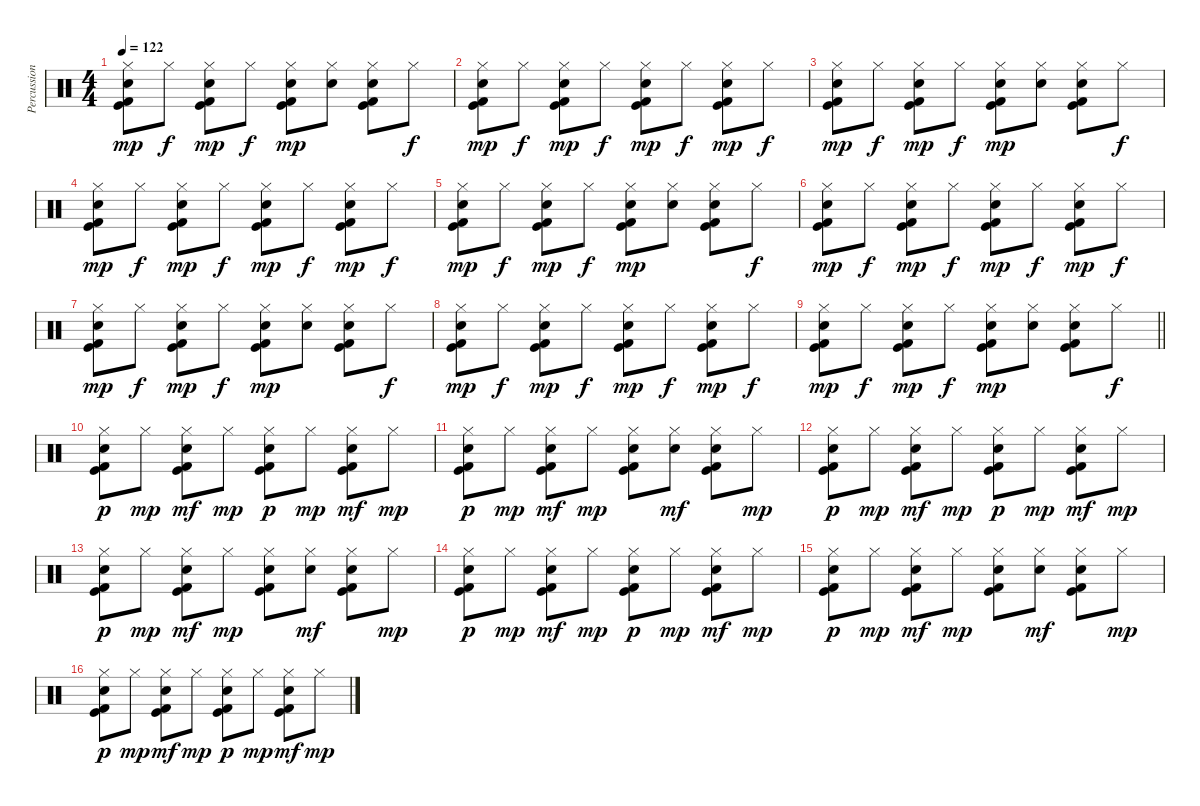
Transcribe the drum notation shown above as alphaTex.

\track ("Percussion" "Percussion") {instrument percussion}
\staff {score}
\articulation defaults
\ts (4 4)
\tempo 122
\clef neutral
\ks c
("Hi-Hat (closed)" "Hand Clap (hit)" "Kick (hit)" "Kick (hit) 2").8{dy mp} "Hi-Hat (closed)".8{dy f} ("Hi-Hat (closed)" "Hand Clap (hit)" "Kick (hit)" "Kick (hit) 2").8{dy mp} "Hi-Hat (closed)".8{dy f} ("Hi-Hat (closed)" "Hand Clap (hit)" "Kick (hit)" "Kick (hit) 2").8{dy mp} ("Hi-Hat (closed)" "Hand Clap (hit)").8 ("Hi-Hat (closed)" "Hand Clap (hit)" "Kick (hit)" "Kick (hit) 2").8 "Hi-Hat (closed)".8{dy f} |
("Hi-Hat (closed)" "Hand Clap (hit)" "Kick (hit)" "Kick (hit) 2").8{dy mp volume 13} "Hi-Hat (closed)".8{dy f} ("Hi-Hat (closed)" "Hand Clap (hit)" "Kick (hit)" "Kick (hit) 2").8{dy mp} "Hi-Hat (closed)".8{dy f} ("Hi-Hat (closed)" "Hand Clap (hit)" "Kick (hit)" "Kick (hit) 2").8{dy mp} "Hi-Hat (closed)".8{dy f} ("Hi-Hat (closed)" "Hand Clap (hit)" "Kick (hit)" "Kick (hit) 2").8{dy mp} "Hi-Hat (closed)".8{dy f} |
("Hi-Hat (closed)" "Hand Clap (hit)" "Kick (hit)" "Kick (hit) 2").8{dy mp} "Hi-Hat (closed)".8{dy f} ("Hi-Hat (closed)" "Hand Clap (hit)" "Kick (hit)" "Kick (hit) 2").8{dy mp} "Hi-Hat (closed)".8{dy f} ("Hi-Hat (closed)" "Hand Clap (hit)" "Kick (hit)" "Kick (hit) 2").8{dy mp} ("Hi-Hat (closed)" "Hand Clap (hit)").8 ("Hi-Hat (closed)" "Hand Clap (hit)" "Kick (hit)" "Kick (hit) 2").8 "Hi-Hat (closed)".8{dy f} |
("Hi-Hat (closed)" "Hand Clap (hit)" "Kick (hit)" "Kick (hit) 2").8{dy mp} "Hi-Hat (closed)".8{dy f} ("Hi-Hat (closed)" "Hand Clap (hit)" "Kick (hit)" "Kick (hit) 2").8{dy mp} "Hi-Hat (closed)".8{dy f} ("Hi-Hat (closed)" "Hand Clap (hit)" "Kick (hit)" "Kick (hit) 2").8{dy mp} "Hi-Hat (closed)".8{dy f} ("Hi-Hat (closed)" "Hand Clap (hit)" "Kick (hit)" "Kick (hit) 2").8{dy mp} "Hi-Hat (closed)".8{dy f} |
("Hi-Hat (closed)" "Hand Clap (hit)" "Kick (hit)" "Kick (hit) 2").8{dy mp} "Hi-Hat (closed)".8{dy f} ("Hi-Hat (closed)" "Hand Clap (hit)" "Kick (hit)" "Kick (hit) 2").8{dy mp} "Hi-Hat (closed)".8{dy f} ("Hi-Hat (closed)" "Hand Clap (hit)" "Kick (hit)" "Kick (hit) 2").8{dy mp} ("Hi-Hat (closed)" "Hand Clap (hit)").8 ("Hi-Hat (closed)" "Hand Clap (hit)" "Kick (hit)" "Kick (hit) 2").8 "Hi-Hat (closed)".8{dy f} |
("Hi-Hat (closed)" "Hand Clap (hit)" "Kick (hit)" "Kick (hit) 2").8{dy mp} "Hi-Hat (closed)".8{dy f} ("Hi-Hat (closed)" "Hand Clap (hit)" "Kick (hit)" "Kick (hit) 2").8{dy mp} "Hi-Hat (closed)".8{dy f} ("Hi-Hat (closed)" "Hand Clap (hit)" "Kick (hit)" "Kick (hit) 2").8{dy mp} "Hi-Hat (closed)".8{dy f} ("Hi-Hat (closed)" "Hand Clap (hit)" "Kick (hit)" "Kick (hit) 2").8{dy mp} "Hi-Hat (closed)".8{dy f} |
("Hi-Hat (closed)" "Hand Clap (hit)" "Kick (hit)" "Kick (hit) 2").8{dy mp} "Hi-Hat (closed)".8{dy f} ("Hi-Hat (closed)" "Hand Clap (hit)" "Kick (hit)" "Kick (hit) 2").8{dy mp} "Hi-Hat (closed)".8{dy f} ("Hi-Hat (closed)" "Hand Clap (hit)" "Kick (hit)" "Kick (hit) 2").8{dy mp} ("Hi-Hat (closed)" "Hand Clap (hit)").8 ("Hi-Hat (closed)" "Hand Clap (hit)" "Kick (hit)" "Kick (hit) 2").8 "Hi-Hat (closed)".8{dy f} |
("Hi-Hat (closed)" "Hand Clap (hit)" "Kick (hit)" "Kick (hit) 2").8{dy mp} "Hi-Hat (closed)".8{dy f} ("Hi-Hat (closed)" "Hand Clap (hit)" "Kick (hit)" "Kick (hit) 2").8{dy mp} "Hi-Hat (closed)".8{dy f} ("Hi-Hat (closed)" "Hand Clap (hit)" "Kick (hit)" "Kick (hit) 2").8{dy mp} "Hi-Hat (closed)".8{dy f} ("Hi-Hat (closed)" "Hand Clap (hit)" "Kick (hit)" "Kick (hit) 2").8{dy mp} "Hi-Hat (closed)".8{dy f} |
\barLineRight lightlight
("Hi-Hat (closed)" "Hand Clap (hit)" "Kick (hit)" "Kick (hit) 2").8{dy mp} "Hi-Hat (closed)".8{dy f} ("Hi-Hat (closed)" "Hand Clap (hit)" "Kick (hit)" "Kick (hit) 2").8{dy mp} "Hi-Hat (closed)".8{dy f} ("Hi-Hat (closed)" "Hand Clap (hit)" "Kick (hit)" "Kick (hit) 2").8{dy mp} ("Hi-Hat (closed)" "Hand Clap (hit)").8 ("Hi-Hat (closed)" "Hand Clap (hit)" "Kick (hit)" "Kick (hit) 2").8 "Hi-Hat (closed)".8{dy f} |
\section ("" "")
("Hi-Hat (closed)" "Hand Clap (hit)" "Kick (hit)" "Kick (hit) 2").8{dy p} "Hi-Hat (closed)".8{dy mp} ("Hi-Hat (closed)" "Hand Clap (hit)" "Kick (hit)" "Kick (hit) 2").8{dy mf} "Hi-Hat (closed)".8{dy mp} ("Hi-Hat (closed)" "Hand Clap (hit)" "Kick (hit)" "Kick (hit) 2").8{dy p} "Hi-Hat (closed)".8{dy mp} ("Hi-Hat (closed)" "Hand Clap (hit)" "Kick (hit)" "Kick (hit) 2").8{dy mf} "Hi-Hat (closed)".8{dy mp} |
("Hi-Hat (closed)" "Hand Clap (hit)" "Kick (hit)" "Kick (hit) 2").8{dy p} "Hi-Hat (closed)".8{dy mp} ("Hi-Hat (closed)" "Hand Clap (hit)" "Kick (hit)" "Kick (hit) 2").8{dy mf} "Hi-Hat (closed)".8{dy mp} ("Hi-Hat (closed)" "Hand Clap (hit)" "Kick (hit)" "Kick (hit) 2").8 ("Hi-Hat (closed)" "Hand Clap (hit)").8{dy mf} ("Hi-Hat (closed)" "Hand Clap (hit)" "Kick (hit)" "Kick (hit) 2").8 "Hi-Hat (closed)".8{dy mp} |
("Hi-Hat (closed)" "Hand Clap (hit)" "Kick (hit)" "Kick (hit) 2").8{dy p} "Hi-Hat (closed)".8{dy mp} ("Hi-Hat (closed)" "Hand Clap (hit)" "Kick (hit)" "Kick (hit) 2").8{dy mf} "Hi-Hat (closed)".8{dy mp} ("Hi-Hat (closed)" "Hand Clap (hit)" "Kick (hit)" "Kick (hit) 2").8{dy p} "Hi-Hat (closed)".8{dy mp} ("Hi-Hat (closed)" "Hand Clap (hit)" "Kick (hit)" "Kick (hit) 2").8{dy mf} "Hi-Hat (closed)".8{dy mp} |
("Hi-Hat (closed)" "Hand Clap (hit)" "Kick (hit)" "Kick (hit) 2").8{dy p} "Hi-Hat (closed)".8{dy mp} ("Hi-Hat (closed)" "Hand Clap (hit)" "Kick (hit)" "Kick (hit) 2").8{dy mf} "Hi-Hat (closed)".8{dy mp} ("Hi-Hat (closed)" "Hand Clap (hit)" "Kick (hit)" "Kick (hit) 2").8 ("Hi-Hat (closed)" "Hand Clap (hit)").8{dy mf} ("Hi-Hat (closed)" "Hand Clap (hit)" "Kick (hit)" "Kick (hit) 2").8 "Hi-Hat (closed)".8{dy mp} |
("Hi-Hat (closed)" "Hand Clap (hit)" "Kick (hit)" "Kick (hit) 2").8{dy p} "Hi-Hat (closed)".8{dy mp} ("Hi-Hat (closed)" "Hand Clap (hit)" "Kick (hit)" "Kick (hit) 2").8{dy mf} "Hi-Hat (closed)".8{dy mp} ("Hi-Hat (closed)" "Hand Clap (hit)" "Kick (hit)" "Kick (hit) 2").8{dy p} "Hi-Hat (closed)".8{dy mp} ("Hi-Hat (closed)" "Hand Clap (hit)" "Kick (hit)" "Kick (hit) 2").8{dy mf} "Hi-Hat (closed)".8{dy mp} |
("Hi-Hat (closed)" "Hand Clap (hit)" "Kick (hit)" "Kick (hit) 2").8{dy p} "Hi-Hat (closed)".8{dy mp} ("Hi-Hat (closed)" "Hand Clap (hit)" "Kick (hit)" "Kick (hit) 2").8{dy mf} "Hi-Hat (closed)".8{dy mp} ("Hi-Hat (closed)" "Hand Clap (hit)" "Kick (hit)" "Kick (hit) 2").8 ("Hi-Hat (closed)" "Hand Clap (hit)").8{dy mf} ("Hi-Hat (closed)" "Hand Clap (hit)" "Kick (hit)" "Kick (hit) 2").8 "Hi-Hat (closed)".8{dy mp} |
("Hi-Hat (closed)" "Hand Clap (hit)" "Kick (hit)" "Kick (hit) 2").8{dy p} "Hi-Hat (closed)".8{dy mp} ("Hi-Hat (closed)" "Hand Clap (hit)" "Kick (hit)" "Kick (hit) 2").8{dy mf} "Hi-Hat (closed)".8{dy mp} ("Hi-Hat (closed)" "Hand Clap (hit)" "Kick (hit)" "Kick (hit) 2").8{dy p} "Hi-Hat (closed)".8{dy mp} ("Hi-Hat (closed)" "Hand Clap (hit)" "Kick (hit)" "Kick (hit) 2").8{dy mf} "Hi-Hat (closed)".8{dy mp}
